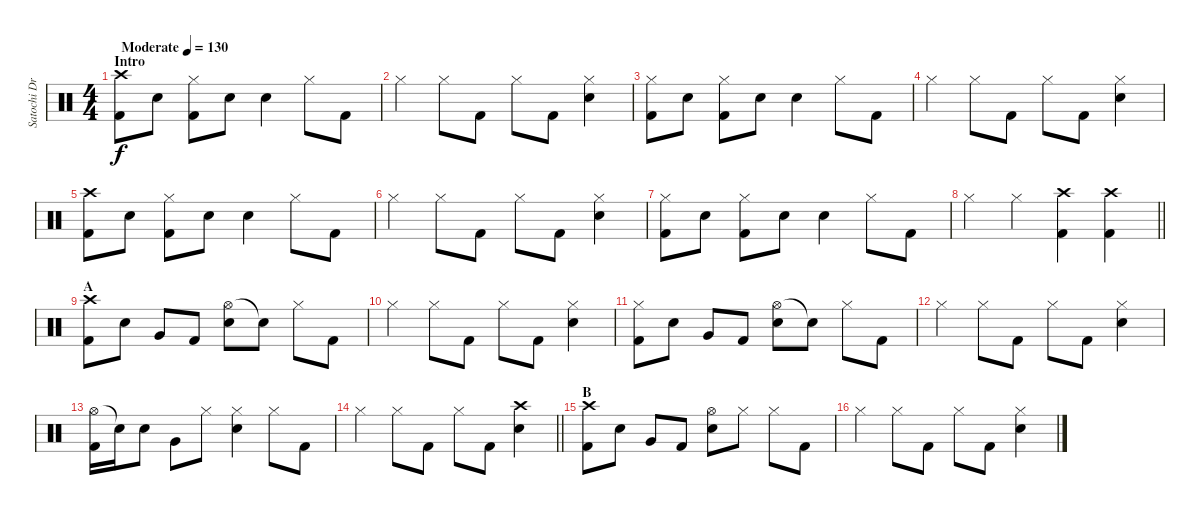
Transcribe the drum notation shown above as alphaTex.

\track ("Satochi Drums" "Satochi Dr") {instrument percussion}
\staff {score}
\articulation defaults
\ts (4 4)
\section ("" "Intro")
\tempo (130 "Moderate")
\clef neutral
\ks c
("Crash high (hit)" "Kick (hit) 2").8{dy f} "Snare (hit) 2".8 ("Hi-Hat (closed)" "Kick (hit) 2").8 "Snare (hit) 2".8 "Snare (hit) 2".4 "Hi-Hat (closed)".8 "Kick (hit) 2".8 |
"Hi-Hat (closed)".4 "Hi-Hat (closed)".8 "Kick (hit) 2".8 "Hi-Hat (closed)".8 "Kick (hit) 2".8 ("Hi-Hat (closed)" "Snare (hit) 2").4 |
("Hi-Hat (closed)" "Kick (hit) 2").8 "Snare (hit) 2".8 ("Hi-Hat (closed)" "Kick (hit) 2").8 "Snare (hit) 2".8 "Snare (hit) 2".4 "Hi-Hat (closed)".8 "Kick (hit) 2".8 |
"Hi-Hat (closed)".4 "Hi-Hat (closed)".8 "Kick (hit) 2".8 "Hi-Hat (closed)".8 "Kick (hit) 2".8 ("Hi-Hat (closed)" "Snare (hit) 2").4 |
("Crash high (hit)" "Kick (hit) 2").8 "Snare (hit) 2".8 ("Hi-Hat (closed)" "Kick (hit) 2").8 "Snare (hit) 2".8 "Snare (hit) 2".4 "Hi-Hat (closed)".8 "Kick (hit) 2".8 |
"Hi-Hat (closed)".4 "Hi-Hat (closed)".8 "Kick (hit) 2".8 "Hi-Hat (closed)".8 "Kick (hit) 2".8 ("Hi-Hat (closed)" "Snare (hit) 2").4 |
("Hi-Hat (closed)" "Kick (hit) 2").8 "Snare (hit) 2".8 ("Hi-Hat (closed)" "Kick (hit) 2").8 "Snare (hit) 2".8 "Snare (hit) 2".4 "Hi-Hat (closed)".8 "Kick (hit) 2".8 |
\barLineRight lightlight "Hi-Hat (closed)".4 "Hi-Hat (closed)".4
("Crash high (hit)" "Kick (hit) 2").4 ("Crash high (hit)" "Kick (hit) 2").4 |
\section ("" "A")
("Crash high (hit)" "Kick (hit) 2").8 "Snare (hit) 2".8 "Very Low Tom (hit)".8 "Kick (hit) 2".8 ("Hi-Hat (open)" "Snare (hit) 2").8 "Snare (hit)"{t}.8 "Hi-Hat (closed)".8 "Kick (hit) 2".8 |
"Hi-Hat (closed)".4 "Hi-Hat (closed)".8 "Kick (hit) 2".8 "Hi-Hat (closed)".8 "Kick (hit) 2".8 ("Hi-Hat (closed)" "Snare (hit) 2").4 |
("Hi-Hat (closed)" "Kick (hit) 2").8 "Snare (hit) 2".8 "Very Low Tom (hit)".8 "Kick (hit) 2".8 ("Hi-Hat (open)" "Snare (hit) 2").8 "Snare (hit)"{t}.8 "Hi-Hat (closed)".8 "Kick (hit) 2".8 |
"Hi-Hat (closed)".4 "Hi-Hat (closed)".8 "Kick (hit) 2".8 "Hi-Hat (closed)".8 "Kick (hit) 2".8 ("Hi-Hat (closed)" "Snare (hit) 2").4 |
("Hi-Hat (open)" "Kick (hit) 2").16 "Snare (hit)"{t}.16 "Snare (hit) 2".8 "Very Low Tom (hit)".8 "Hi-Hat (closed)".8 ("Hi-Hat (closed)" "Snare (hit) 2").4 "Hi-Hat (closed)".8 "Kick (hit) 2".8 |
\barLineRight lightlight "Hi-Hat (closed)".4 "Hi-Hat (closed)".8 "Kick (hit) 2".8 "Hi-Hat (closed)".8 "Kick (hit) 2".8
("Crash high (hit)" "Snare (hit) 2").4 |
\section ("" "B")
("Crash high (hit)" "Kick (hit) 2").8 "Snare (hit) 2".8 "Very Low Tom (hit)".8 "Kick (hit) 2".8 ("Hi-Hat (open)" "Snare (hit) 2").8 "Hi-Hat (closed)".8 "Hi-Hat (closed)".8 "Kick (hit) 2".8 |
"Hi-Hat (closed)".4 "Hi-Hat (closed)".8 "Kick (hit) 2".8 "Hi-Hat (closed)".8 "Kick (hit) 2".8 ("Hi-Hat (closed)" "Snare (hit) 2").4
